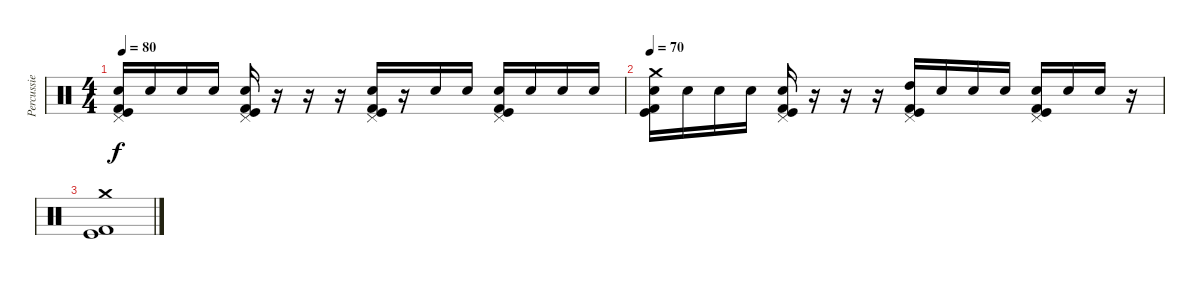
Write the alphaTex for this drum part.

\track ("Percussie" "Percussie") {instrument percussion}
\staff {score}
\articulation defaults
\ts (4 4)
\tempo 80
\clef neutral
\ks c
("Pedal Hi-Hat (hit)" "Electric Snare (hit)" "Kick (hit)" "Kick (hit) 2").16{dy f} "Hand Clap (hit)".16 "Hand Clap (hit)".16 "Hand Clap (hit)".16 ("Pedal Hi-Hat (hit)" "Electric Snare (hit)" "Kick (hit)" "Kick (hit) 2").16 r.16 r.16 r.16 ("Pedal Hi-Hat (hit)" "Electric Snare (hit)" "Kick (hit)" "Kick (hit) 2").16 r.16 "Hand Clap (hit)".16 "Hand Clap (hit)".16 ("Pedal Hi-Hat (hit)" "Electric Snare (hit)" "Kick (hit)" "Kick (hit) 2").16 "Hand Clap (hit)".16 "Hand Clap (hit)".16 "Hand Clap (hit)".16 |
\tempo 70
("Crash medium (hit)" "Electric Snare (hit)" "Kick (hit)" "Kick (hit) 2").16 "Hand Clap (hit)".16 "Hand Clap (hit)".16 "Hand Clap (hit)".16 ("Pedal Hi-Hat (hit)" "Electric Snare (hit)" "Kick (hit)" "Kick (hit) 2").16 r.16 r.16 r.16 ("Pedal Hi-Hat (hit)" "High Tom (hit)" "Kick (hit)" "Kick (hit) 2").16 "Hand Clap (hit)".16 "Hand Clap (hit)".16 "Hand Clap (hit)".16 ("Pedal Hi-Hat (hit)" "Electric Snare (hit)" "Kick (hit)" "Kick (hit) 2").16 "Hand Clap (hit)".16 "Electric Snare (hit)".16 r.16 |
("Crash medium (hit)" "Kick (hit)" "Kick (hit) 2").1
